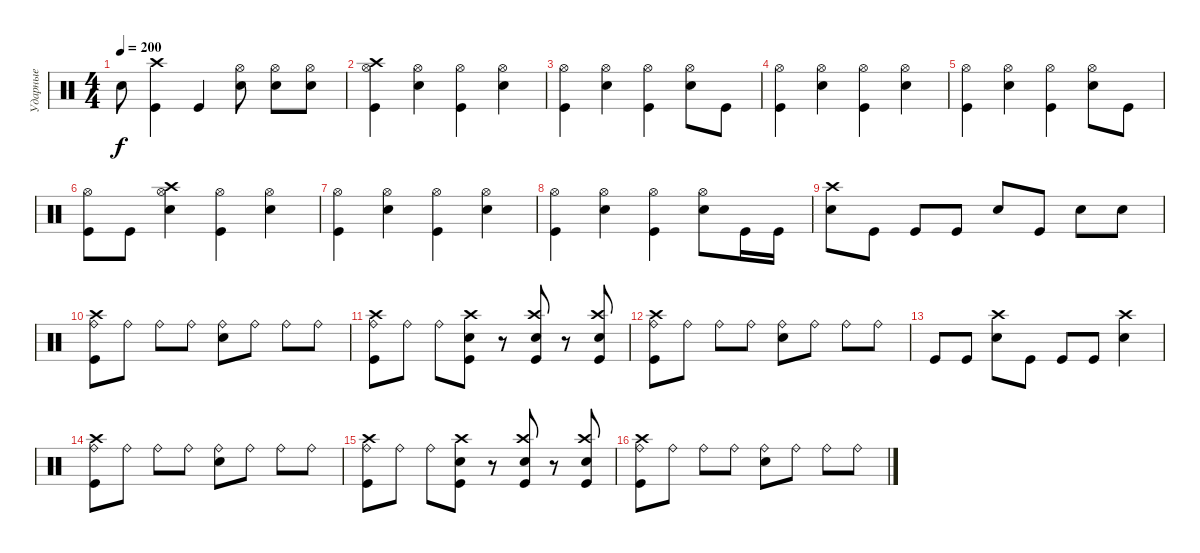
\track ("Ударные" "Ударные") {instrument percussion}
\staff {score}
\articulation defaults
\ts (4 4)
\tempo 200
\clef neutral
\ks c "Electric Snare (hit)".8{dy f}
("Crash high (hit)" "Kick (hit)").4 "Kick (hit)".4 ("Hi-Hat (open)" "Electric Snare (hit)").8 ("Hi-Hat (open)" "Electric Snare (hit)").8 ("Hi-Hat (open)" "Electric Snare (hit)").8 |
("Hi-Hat (open)" "Crash high (hit)" "Kick (hit)").4 ("Hi-Hat (open)" "Electric Snare (hit)").4 ("Hi-Hat (open)" "Kick (hit)").4 ("Hi-Hat (open)" "Electric Snare (hit)").4 |
("Hi-Hat (open)" "Kick (hit)").4 ("Hi-Hat (open)" "Electric Snare (hit)").4 ("Hi-Hat (open)" "Kick (hit)").4 ("Hi-Hat (open)" "Electric Snare (hit)").8 "Kick (hit)".8 |
("Hi-Hat (open)" "Kick (hit)").4 ("Hi-Hat (open)" "Electric Snare (hit)").4 ("Hi-Hat (open)" "Kick (hit)").4 ("Hi-Hat (open)" "Electric Snare (hit)").4 |
("Hi-Hat (open)" "Kick (hit)").4 ("Hi-Hat (open)" "Electric Snare (hit)").4 ("Hi-Hat (open)" "Kick (hit)").4 ("Hi-Hat (open)" "Electric Snare (hit)").8 "Kick (hit)".8 |
("Hi-Hat (open)" "Kick (hit)").8 "Kick (hit)".8 ("Hi-Hat (open)" "Electric Snare (hit)" "Crash high (hit)").4 ("Hi-Hat (open)" "Kick (hit)").4 ("Hi-Hat (open)" "Electric Snare (hit)").4 |
("Hi-Hat (open)" "Kick (hit)").4 ("Hi-Hat (open)" "Electric Snare (hit)").4 ("Hi-Hat (open)" "Kick (hit)").4 ("Hi-Hat (open)" "Electric Snare (hit)").4 |
("Hi-Hat (open)" "Kick (hit)").4 ("Hi-Hat (open)" "Electric Snare (hit)").4 ("Hi-Hat (open)" "Kick (hit)").4 ("Hi-Hat (open)" "Electric Snare (hit)").8 "Kick (hit)".16 "Kick (hit)".16 |
("Electric Snare (hit)" "Crash high (hit)").8 "Kick (hit)".8 "Kick (hit)".8 "Kick (hit)".8 "Electric Snare (hit)".8 "Kick (hit)".8 "Electric Snare (hit)".8 "Electric Snare (hit)".8 |
("Ride (bell)" "Crash high (hit)" "Kick (hit)").8 "Ride (bell)".8 "Ride (bell)".8 "Ride (bell)".8 ("Ride (bell)" "Electric Snare (hit)").8 "Ride (bell)".8 "Ride (bell)".8 "Ride (bell)".8 |
("Ride (bell)" "Crash high (hit)" "Kick (hit)").8 "Ride (bell)".8 "Ride (bell)".8 ("Electric Snare (hit)" "Crash high (hit)" "Kick (hit)").8 r.8 ("Electric Snare (hit)" "Crash high (hit)" "Kick (hit)").8 r.8 ("Electric Snare (hit)" "Crash high (hit)" "Kick (hit)").8 |
("Ride (bell)" "Crash high (hit)" "Kick (hit)").8 "Ride (bell)".8 "Ride (bell)".8 "Ride (bell)".8 ("Ride (bell)" "Electric Snare (hit)").8 "Ride (bell)".8 "Ride (bell)".8 "Ride (bell)".8 |
"Kick (hit)".8 "Kick (hit)".8 ("Electric Snare (hit)" "Crash high (hit)").8 "Kick (hit)".8 "Kick (hit)".8 "Kick (hit)".8 ("Electric Snare (hit)" "Crash high (hit)").4 |
("Ride (bell)" "Crash high (hit)" "Kick (hit)").8 "Ride (bell)".8 "Ride (bell)".8 "Ride (bell)".8 ("Ride (bell)" "Electric Snare (hit)").8 "Ride (bell)".8 "Ride (bell)".8 "Ride (bell)".8 |
("Ride (bell)" "Crash high (hit)" "Kick (hit)").8 "Ride (bell)".8 "Ride (bell)".8 ("Electric Snare (hit)" "Crash high (hit)" "Kick (hit)").8 r.8 ("Electric Snare (hit)" "Crash high (hit)" "Kick (hit)").8 r.8 ("Electric Snare (hit)" "Crash high (hit)" "Kick (hit)").8 |
("Ride (bell)" "Crash high (hit)" "Kick (hit)").8 "Ride (bell)".8 "Ride (bell)".8 "Ride (bell)".8 ("Ride (bell)" "Electric Snare (hit)").8 "Ride (bell)".8 "Ride (bell)".8 "Ride (bell)".8
